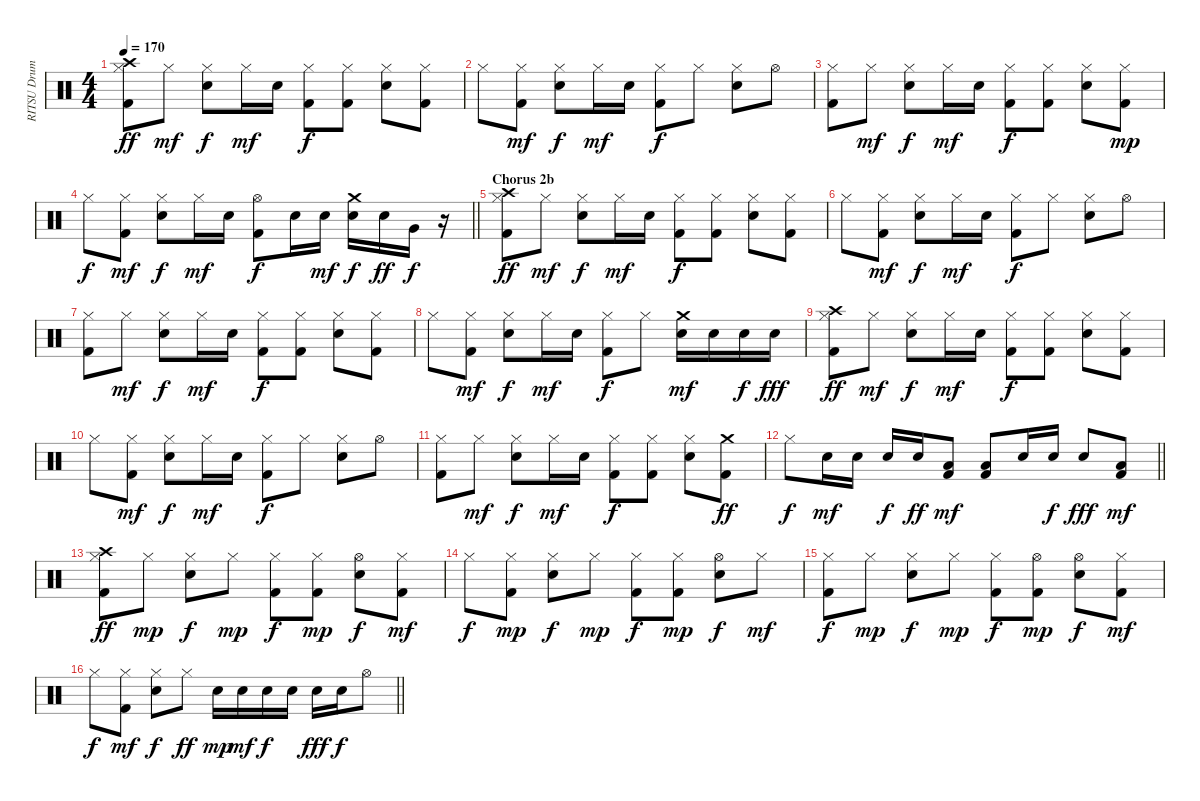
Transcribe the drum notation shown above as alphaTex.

\track ("RITSU Drums" "RITSU Drum") {instrument percussion}
\staff {score}
\articulation defaults
\ts (4 4)
\tempo 170
\clef neutral
\ks c
("Crash high (hit)" "Hi-Hat (closed)" "Kick (hit) 2").8{dy ff} "Hi-Hat (closed)".8{dy mf} ("Hi-Hat (closed)" "Electric Snare (hit)").8{dy f} "Hi-Hat (closed)".16{dy mf} "Electric Snare (hit)".16 ("Hi-Hat (closed)" "Kick (hit) 2").8{dy f} ("Hi-Hat (closed)" "Kick (hit) 2").8 ("Hi-Hat (closed)" "Electric Snare (hit)").8 ("Hi-Hat (closed)" "Kick (hit) 2").8 |
"Hi-Hat (closed)".8 ("Hi-Hat (closed)" "Kick (hit) 2").8{dy mf} ("Hi-Hat (closed)" "Electric Snare (hit)").8{dy f} "Hi-Hat (closed)".16{dy mf} "Electric Snare (hit)".16 ("Hi-Hat (closed)" "Kick (hit) 2").8{dy f} "Hi-Hat (closed)".8 ("Hi-Hat (closed)" "Electric Snare (hit)").8 "Hi-Hat (open)".8 |
("Hi-Hat (closed)" "Kick (hit) 2").8 "Hi-Hat (closed)".8{dy mf} ("Hi-Hat (closed)" "Electric Snare (hit)").8{dy f} "Hi-Hat (closed)".16{dy mf} "Electric Snare (hit)".16 ("Hi-Hat (closed)" "Kick (hit) 2").8{dy f} ("Hi-Hat (closed)" "Kick (hit) 2").8 ("Hi-Hat (closed)" "Electric Snare (hit)").8 ("Hi-Hat (closed)" "Kick (hit) 2").8{dy mp} |
\barLineRight lightlight "Hi-Hat (closed)".8{dy f}
("Hi-Hat (closed)" "Kick (hit) 2").8{dy mf} ("Hi-Hat (closed)" "Electric Snare (hit)").8{dy f} "Hi-Hat (closed)".16{dy mf} "Electric Snare (hit)".16 ("Hi-Hat (open)" "Kick (hit) 2").8{dy f} "Electric Snare (hit)".16 "Electric Snare (hit)".16{dy mf} ("Crash medium (hit)" "Electric Snare (hit)").16{dy f} "Electric Snare (hit)".16{dy ff} "Very Low Tom (hit)".16{dy f} r.16 |
\section ("" "Chorus 2b")
("Crash high (hit)" "Hi-Hat (closed)" "Kick (hit) 2").8{dy ff} "Hi-Hat (closed)".8{dy mf} ("Hi-Hat (closed)" "Electric Snare (hit)").8{dy f} "Hi-Hat (closed)".16{dy mf} "Electric Snare (hit)".16 ("Hi-Hat (closed)" "Kick (hit) 2").8{dy f} ("Hi-Hat (closed)" "Kick (hit) 2").8 ("Hi-Hat (closed)" "Electric Snare (hit)").8 ("Hi-Hat (closed)" "Kick (hit) 2").8 |
"Hi-Hat (closed)".8 ("Hi-Hat (closed)" "Kick (hit) 2").8{dy mf} ("Hi-Hat (closed)" "Electric Snare (hit)").8{dy f} "Hi-Hat (closed)".16{dy mf} "Electric Snare (hit)".16 ("Hi-Hat (closed)" "Kick (hit) 2").8{dy f} "Hi-Hat (closed)".8 ("Hi-Hat (closed)" "Electric Snare (hit)").8 "Hi-Hat (open)".8 |
("Hi-Hat (closed)" "Kick (hit) 2").8 "Hi-Hat (closed)".8{dy mf} ("Hi-Hat (closed)" "Electric Snare (hit)").8{dy f} "Hi-Hat (closed)".16{dy mf} "Electric Snare (hit)".16 ("Hi-Hat (closed)" "Kick (hit) 2").8{dy f} ("Hi-Hat (closed)" "Kick (hit) 2").8 ("Hi-Hat (closed)" "Electric Snare (hit)").8 ("Hi-Hat (closed)" "Kick (hit) 2").8 |
"Hi-Hat (closed)".8 ("Hi-Hat (closed)" "Kick (hit) 2").8{dy mf} ("Hi-Hat (closed)" "Electric Snare (hit)").8{dy f} "Hi-Hat (closed)".16{dy mf} "Electric Snare (hit)".16 ("Hi-Hat (closed)" "Kick (hit) 2").8{dy f} "Hi-Hat (closed)".8 ("Crash medium (hit)" "Electric Snare (hit)").16{dy mf} "Electric Snare (hit)".16 "Electric Snare (hit)".16{dy f} "Electric Snare (hit)".16{dy fff} |
("Crash high (hit)" "Hi-Hat (closed)" "Kick (hit) 2").8{dy ff} "Hi-Hat (closed)".8{dy mf} ("Hi-Hat (closed)" "Electric Snare (hit)").8{dy f} "Hi-Hat (closed)".16{dy mf} "Electric Snare (hit)".16 ("Hi-Hat (closed)" "Kick (hit) 2").8{dy f} ("Hi-Hat (closed)" "Kick (hit) 2").8 ("Hi-Hat (closed)" "Electric Snare (hit)").8 ("Hi-Hat (closed)" "Kick (hit) 2").8 |
"Hi-Hat (closed)".8 ("Hi-Hat (closed)" "Kick (hit) 2").8{dy mf} ("Hi-Hat (closed)" "Electric Snare (hit)").8{dy f} "Hi-Hat (closed)".16{dy mf} "Electric Snare (hit)".16 ("Hi-Hat (closed)" "Kick (hit) 2").8{dy f} "Hi-Hat (closed)".8 ("Hi-Hat (closed)" "Electric Snare (hit)").8 "Hi-Hat (open)".8 |
("Hi-Hat (closed)" "Kick (hit) 2").8 "Hi-Hat (closed)".8{dy mf} ("Hi-Hat (closed)" "Electric Snare (hit)").8{dy f} "Hi-Hat (closed)".16{dy mf} "Electric Snare (hit)".16 ("Hi-Hat (closed)" "Kick (hit) 2").8{dy f} ("Hi-Hat (closed)" "Kick (hit) 2").8 ("Hi-Hat (closed)" "Electric Snare (hit)").8 ("Crash medium (hit)" "Kick (hit) 2").8{dy ff} |
\barLineRight lightlight "Hi-Hat (closed)".8{dy f} "Electric Snare (hit)".16{dy mf} "Electric Snare (hit)".16 "Electric Snare (hit)".16{dy f} "Electric Snare (hit)".16{dy ff}
("Low Tom (hit)" "Kick (hit) 2").8{dy mf} ("Low Floor Tom (hit)" "Kick (hit) 2").8 "Electric Snare (hit)".16 "Electric Snare (hit)".16{dy f} "Electric Snare (hit)".8{dy fff} ("Low Floor Tom (hit)" "Kick (hit) 2").8{dy mf} |
("Crash high (hit)" "Hi-Hat (closed)" "Kick (hit) 2").8{dy ff} "Hi-Hat (closed)".8{dy mp} ("Hi-Hat (closed)" "Electric Snare (hit)").8{dy f} "Hi-Hat (closed)".8{dy mp} ("Hi-Hat (closed)" "Kick (hit) 2").8{dy f} ("Hi-Hat (closed)" "Kick (hit) 2").8{dy mp} ("Hi-Hat (open)" "Electric Snare (hit)").8{dy f} ("Hi-Hat (closed)" "Kick (hit) 2").8{dy mf} |
"Hi-Hat (closed)".8{dy f} ("Hi-Hat (closed)" "Kick (hit) 2").8{dy mp} ("Hi-Hat (closed)" "Electric Snare (hit)").8{dy f} "Hi-Hat (closed)".8{dy mp} ("Hi-Hat (closed)" "Kick (hit) 2").8{dy f} ("Hi-Hat (closed)" "Kick (hit) 2").8{dy mp} ("Hi-Hat (open)" "Electric Snare (hit)").8{dy f} "Hi-Hat (closed)".8{dy mf} |
("Hi-Hat (closed)" "Kick (hit) 2").8{dy f} "Hi-Hat (closed)".8{dy mp} ("Hi-Hat (closed)" "Electric Snare (hit)").8{dy f} "Hi-Hat (closed)".8{dy mp} ("Hi-Hat (closed)" "Kick (hit) 2").8{dy f} ("Hi-Hat (open)" "Kick (hit) 2").8{dy mp} ("Hi-Hat (open)" "Electric Snare (hit)").8{dy f} ("Hi-Hat (closed)" "Kick (hit) 2").8{dy mf} |
\barLineRight lightlight "Hi-Hat (closed)".8{dy f}
("Hi-Hat (closed)" "Kick (hit) 2").8{dy mf} ("Hi-Hat (closed)" "Electric Snare (hit)").8{dy f} "Hi-Hat (closed)".8{dy ff} "Electric Snare (hit)".16{dy mp} "Electric Snare (hit)".16{dy mf} "Electric Snare (hit)".16{dy f} "Electric Snare (hit)".16 "Electric Snare (hit)".16{dy fff} "Electric Snare (hit)".16{dy f} "Hi-Hat (open)".8
